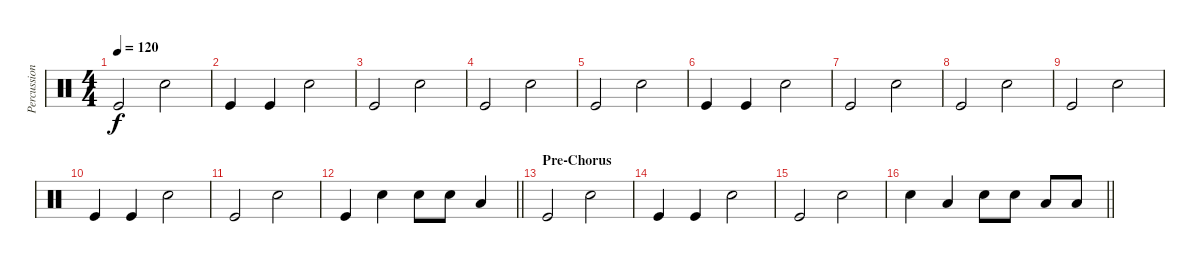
\track ("Percussion" "Percussion") {instrument percussion}
\staff {score}
\articulation defaults
\ts (4 4)
\tempo 120
\clef neutral
\ks c "Kick (hit)".2{dy f} "Snare (hit) 2".2
|
"Kick (hit)".4 "Kick (hit)".4 "Snare (hit) 2".2 |
"Kick (hit)".2 "Snare (hit) 2".2 |
"Kick (hit)".2 "Snare (hit) 2".2 |
"Kick (hit)".2 "Snare (hit) 2".2 |
"Kick (hit)".4 "Kick (hit)".4 "Snare (hit) 2".2 |
"Kick (hit)".2 "Snare (hit) 2".2 |
"Kick (hit)".2 "Snare (hit) 2".2 |
"Kick (hit)".2 "Snare (hit) 2".2 |
"Kick (hit)".4 "Kick (hit)".4 "Snare (hit) 2".2 |
"Kick (hit)".2 "Snare (hit) 2".2 |
\barLineRight lightlight "Kick (hit)".4 "Snare (hit) 2".4 "Snare (hit) 2".8 "Snare (hit) 2".8 "Low Tom (hit)".4
|
\section ("" "Pre-Chorus")
"Kick (hit)".2 "Snare (hit) 2".2 |
"Kick (hit)".4 "Kick (hit)".4 "Snare (hit) 2".2 |
"Kick (hit)".2 "Snare (hit) 2".2 |
\barLineRight lightlight "Snare (hit) 2".4 "Low Tom (hit)".4 "Snare (hit) 2".8 "Snare (hit) 2".8 "Low Tom (hit)".8 "Low Tom (hit)".8
